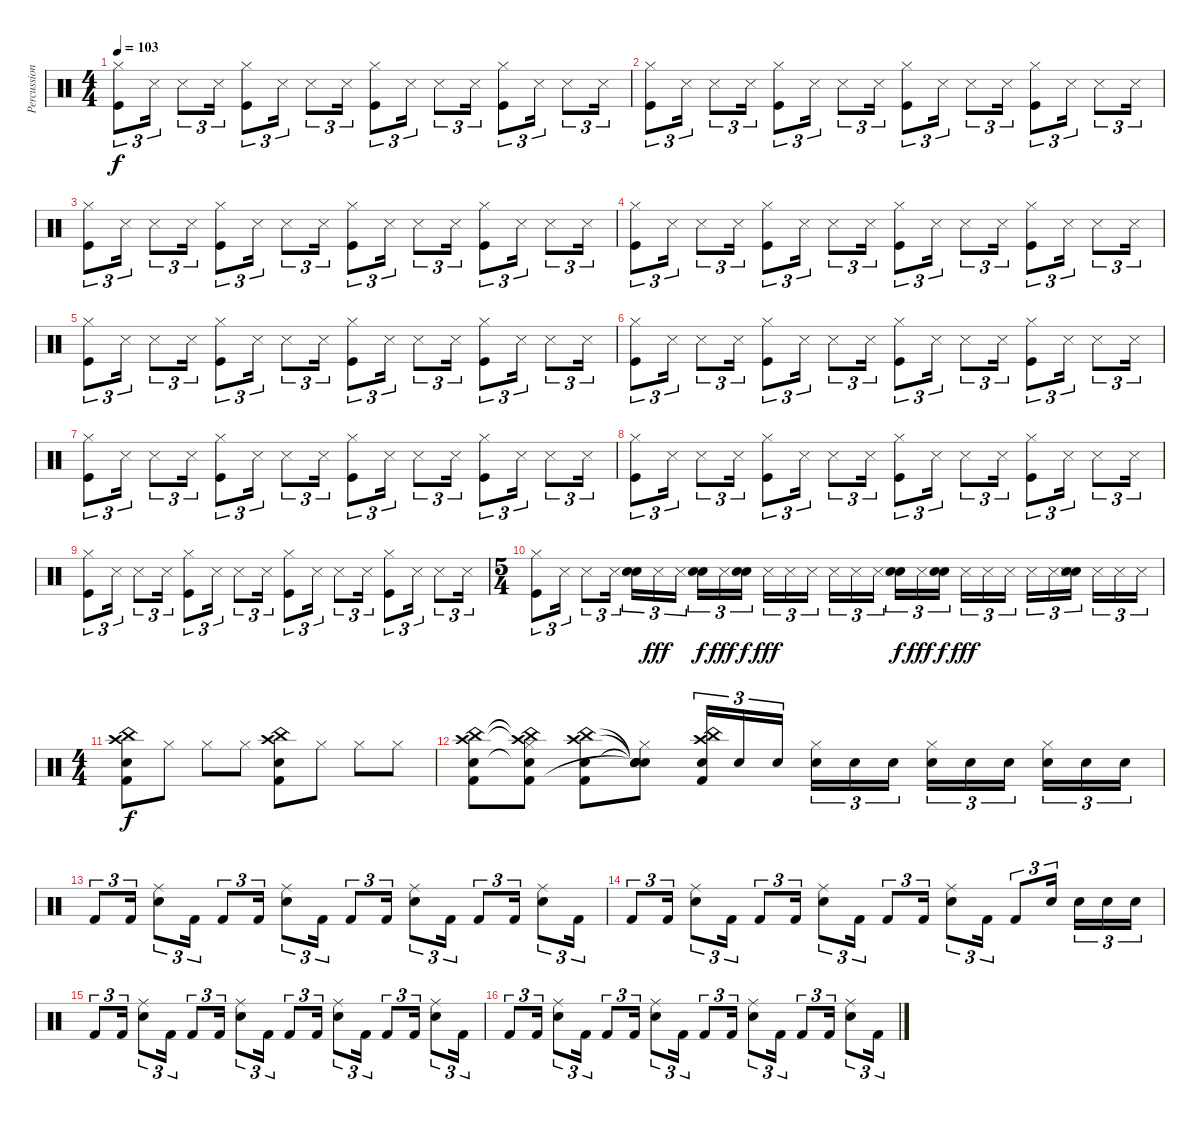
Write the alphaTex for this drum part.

\track ("Percussion" "Percussion") {instrument percussion}
\staff {score}
\articulation defaults
\ts (4 4)
\tempo 103
\clef neutral
\ks c
("Hi-Hat (closed)" "Kick (hit)").8{tu (3 2) dy f} "Metronome (hit)".16{tu (3 2)} "Metronome (hit)".8{tu (3 2)} "Metronome (hit)".16{tu (3 2)} ("Hi-Hat (closed)" "Kick (hit)").8{tu (3 2)} "Metronome (hit)".16{tu (3 2)} "Metronome (hit)".8{tu (3 2)} "Metronome (hit)".16{tu (3 2)} ("Hi-Hat (closed)" "Kick (hit)").8{tu (3 2)} "Metronome (hit)".16{tu (3 2)} "Metronome (hit)".8{tu (3 2)} "Metronome (hit)".16{tu (3 2)} ("Hi-Hat (closed)" "Kick (hit)").8{tu (3 2)} "Metronome (hit)".16{tu (3 2)} "Metronome (hit)".8{tu (3 2)} "Metronome (hit)".16{tu (3 2)} |
("Hi-Hat (closed)" "Kick (hit)").8{tu (3 2)} "Metronome (hit)".16{tu (3 2)} "Metronome (hit)".8{tu (3 2)} "Metronome (hit)".16{tu (3 2)} ("Hi-Hat (closed)" "Kick (hit)").8{tu (3 2)} "Metronome (hit)".16{tu (3 2)} "Metronome (hit)".8{tu (3 2)} "Metronome (hit)".16{tu (3 2)} ("Hi-Hat (closed)" "Kick (hit)").8{tu (3 2)} "Metronome (hit)".16{tu (3 2)} "Metronome (hit)".8{tu (3 2)} "Metronome (hit)".16{tu (3 2)} ("Hi-Hat (closed)" "Kick (hit)").8{tu (3 2)} "Metronome (hit)".16{tu (3 2)} "Metronome (hit)".8{tu (3 2)} "Metronome (hit)".16{tu (3 2)} |
("Hi-Hat (closed)" "Kick (hit)").8{tu (3 2)} "Metronome (hit)".16{tu (3 2)} "Metronome (hit)".8{tu (3 2)} "Metronome (hit)".16{tu (3 2)} ("Hi-Hat (closed)" "Kick (hit)").8{tu (3 2)} "Metronome (hit)".16{tu (3 2)} "Metronome (hit)".8{tu (3 2)} "Metronome (hit)".16{tu (3 2)} ("Hi-Hat (closed)" "Kick (hit)").8{tu (3 2)} "Metronome (hit)".16{tu (3 2)} "Metronome (hit)".8{tu (3 2)} "Metronome (hit)".16{tu (3 2)} ("Hi-Hat (closed)" "Kick (hit)").8{tu (3 2)} "Metronome (hit)".16{tu (3 2)} "Metronome (hit)".8{tu (3 2)} "Metronome (hit)".16{tu (3 2)} |
("Hi-Hat (closed)" "Kick (hit)").8{tu (3 2)} "Metronome (hit)".16{tu (3 2)} "Metronome (hit)".8{tu (3 2)} "Metronome (hit)".16{tu (3 2)} ("Hi-Hat (closed)" "Kick (hit)").8{tu (3 2)} "Metronome (hit)".16{tu (3 2)} "Metronome (hit)".8{tu (3 2)} "Metronome (hit)".16{tu (3 2)} ("Hi-Hat (closed)" "Kick (hit)").8{tu (3 2)} "Metronome (hit)".16{tu (3 2)} "Metronome (hit)".8{tu (3 2)} "Metronome (hit)".16{tu (3 2)} ("Hi-Hat (closed)" "Kick (hit)").8{tu (3 2)} "Metronome (hit)".16{tu (3 2)} "Metronome (hit)".8{tu (3 2)} "Metronome (hit)".16{tu (3 2)} |
("Hi-Hat (closed)" "Kick (hit)").8{tu (3 2)} "Metronome (hit)".16{tu (3 2)} "Metronome (hit)".8{tu (3 2)} "Metronome (hit)".16{tu (3 2)} ("Hi-Hat (closed)" "Kick (hit)").8{tu (3 2)} "Metronome (hit)".16{tu (3 2)} "Metronome (hit)".8{tu (3 2)} "Metronome (hit)".16{tu (3 2)} ("Hi-Hat (closed)" "Kick (hit)").8{tu (3 2)} "Metronome (hit)".16{tu (3 2)} "Metronome (hit)".8{tu (3 2)} "Metronome (hit)".16{tu (3 2)} ("Hi-Hat (closed)" "Kick (hit)").8{tu (3 2)} "Metronome (hit)".16{tu (3 2)} "Metronome (hit)".8{tu (3 2)} "Metronome (hit)".16{tu (3 2)} |
("Hi-Hat (closed)" "Kick (hit)").8{tu (3 2)} "Metronome (hit)".16{tu (3 2)} "Metronome (hit)".8{tu (3 2)} "Metronome (hit)".16{tu (3 2)} ("Hi-Hat (closed)" "Kick (hit)").8{tu (3 2)} "Metronome (hit)".16{tu (3 2)} "Metronome (hit)".8{tu (3 2)} "Metronome (hit)".16{tu (3 2)} ("Hi-Hat (closed)" "Kick (hit)").8{tu (3 2)} "Metronome (hit)".16{tu (3 2)} "Metronome (hit)".8{tu (3 2)} "Metronome (hit)".16{tu (3 2)} ("Hi-Hat (closed)" "Kick (hit)").8{tu (3 2)} "Metronome (hit)".16{tu (3 2)} "Metronome (hit)".8{tu (3 2)} "Metronome (hit)".16{tu (3 2)} |
("Hi-Hat (closed)" "Kick (hit)").8{tu (3 2)} "Metronome (hit)".16{tu (3 2)} "Metronome (hit)".8{tu (3 2)} "Metronome (hit)".16{tu (3 2)} ("Hi-Hat (closed)" "Kick (hit)").8{tu (3 2)} "Metronome (hit)".16{tu (3 2)} "Metronome (hit)".8{tu (3 2)} "Metronome (hit)".16{tu (3 2)} ("Hi-Hat (closed)" "Kick (hit)").8{tu (3 2)} "Metronome (hit)".16{tu (3 2)} "Metronome (hit)".8{tu (3 2)} "Metronome (hit)".16{tu (3 2)} ("Hi-Hat (closed)" "Kick (hit)").8{tu (3 2)} "Metronome (hit)".16{tu (3 2)} "Metronome (hit)".8{tu (3 2)} "Metronome (hit)".16{tu (3 2)} |
("Hi-Hat (closed)" "Kick (hit)").8{tu (3 2)} "Metronome (hit)".16{tu (3 2)} "Metronome (hit)".8{tu (3 2)} "Metronome (hit)".16{tu (3 2)} ("Hi-Hat (closed)" "Kick (hit)").8{tu (3 2)} "Metronome (hit)".16{tu (3 2)} "Metronome (hit)".8{tu (3 2)} "Metronome (hit)".16{tu (3 2)} ("Hi-Hat (closed)" "Kick (hit)").8{tu (3 2)} "Metronome (hit)".16{tu (3 2)} "Metronome (hit)".8{tu (3 2)} "Metronome (hit)".16{tu (3 2)} ("Hi-Hat (closed)" "Kick (hit)").8{tu (3 2)} "Metronome (hit)".16{tu (3 2)} "Metronome (hit)".8{tu (3 2)} "Metronome (hit)".16{tu (3 2)} |
("Hi-Hat (closed)" "Kick (hit)").8{tu (3 2)} "Metronome (hit)".16{tu (3 2)} "Metronome (hit)".8{tu (3 2)} "Metronome (hit)".16{tu (3 2)} ("Hi-Hat (closed)" "Kick (hit)").8{tu (3 2)} "Metronome (hit)".16{tu (3 2)} "Metronome (hit)".8{tu (3 2)} "Metronome (hit)".16{tu (3 2)} ("Hi-Hat (closed)" "Kick (hit)").8{tu (3 2)} "Metronome (hit)".16{tu (3 2)} "Metronome (hit)".8{tu (3 2)} "Metronome (hit)".16{tu (3 2)} ("Hi-Hat (closed)" "Kick (hit)").8{tu (3 2)} "Metronome (hit)".16{tu (3 2)} "Metronome (hit)".8{tu (3 2)} "Metronome (hit)".16{tu (3 2)} |
\ts (5 4)
("Hi-Hat (closed)" "Kick (hit)").8{tu (3 2)} "Metronome (hit)".16{tu (3 2)} "Metronome (hit)".8{tu (3 2)} "Metronome (hit)".16{tu (3 2)} ("Electric Snare (hit)" "Snare (hit) 2").16{tu (3 2) volume 10} "Snare (side stick) 3".16{tu (3 2) dy fff} "Snare (side stick) 3".16{tu (3 2)} ("Electric Snare (hit)" "Snare (hit) 2").16{tu (3 2) dy f} "Snare (side stick) 3".16{tu (3 2) dy fff} ("Electric Snare (hit)" "Snare (hit) 2").16{tu (3 2) dy f} "Snare (side stick) 3".16{tu (3 2) dy fff} "Snare (side stick) 3".16{tu (3 2)} "Snare (side stick) 3".16{tu (3 2)} "Snare (side stick) 3".16{tu (3 2)} "Snare (side stick) 3".16{tu (3 2)} "Snare (side stick) 3".16{tu (3 2)} ("Electric Snare (hit)" "Snare (hit) 2").16{tu (3 2) dy f} "Snare (side stick) 3".16{tu (3 2) dy fff} ("Electric Snare (hit)" "Snare (hit) 2").16{tu (3 2) dy f} "Snare (side stick) 3".16{tu (3 2) dy fff} "Snare (side stick) 3".16{tu (3 2)} "Snare (side stick) 3".16{tu (3 2)} "Snare (side stick) 3".16{tu (3 2)} "Snare (side stick) 3".16{tu (3 2)} ("Electric Snare (hit)" "Snare (hit) 2" "Snare (side stick) 3").16{tu (3 2)} "Snare (side stick) 3".16{tu (3 2)} "Snare (side stick) 3".16{tu (3 2)} "Snare (side stick) 3".16{tu (3 2)} |
\ts (4 4)
("China (hit)" "Crash high (hit)" "Electric Snare (hit)" "Kick (hit) 2").8{dy f volume 14} "Hi-Hat (closed)".8 "Hi-Hat (closed)".8 "Hi-Hat (closed)".8 ("China (hit)" "Crash high (hit)" "Electric Snare (hit)" "Kick (hit) 2").8 "Hi-Hat (closed)".8 "Hi-Hat (closed)".8 "Hi-Hat (closed)".8 |
("China (hit)" "Crash high (hit)" "Electric Snare (hit)" "Kick (hit) 2").8 ("China (hit)"{t} "Crash high (hit)"{t} "Electric Snare (hit)"{t} "Hi-Hat (closed)" "Kick (hit) 2").8 ("China (hit)" "Crash high (hit)" "Electric Snare (hit)" "Kick (hit) 2").8 ("Snare (hit)"{t} "Snare (hit)"{t} "Snare (hit)"{t} "Hi-Hat (closed)" "Snare (hit)"{t}).8 ("China (hit)" "Crash high (hit)" "Electric Snare (hit)" "Kick (hit) 2").16{tu (3 2)} "Electric Snare (hit)".16{tu (3 2)} "Electric Snare (hit)".16{tu (3 2)} ("Electric Snare (hit)" "Hi-Hat (closed)").16{tu (3 2)} "Electric Snare (hit)".16{tu (3 2)} "Electric Snare (hit)".16{tu (3 2)} ("Electric Snare (hit)" "Hi-Hat (closed)").16{tu (3 2)} "Electric Snare (hit)".16{tu (3 2)} "Electric Snare (hit)".16{tu (3 2)} ("Electric Snare (hit)" "Hi-Hat (closed)").16{tu (3 2)} "Electric Snare (hit)".16{tu (3 2)} "Electric Snare (hit)".16{tu (3 2)} |
"Kick (hit) 2".8{tu (3 2)} "Kick (hit) 2".16{tu (3 2)} ("Ride (middle)" "Snare (hit) 2").8{tu (3 2)} "Kick (hit) 2".16{tu (3 2)} "Kick (hit) 2".8{tu (3 2)} "Kick (hit) 2".16{tu (3 2)} ("Ride (middle)" "Snare (hit) 2").8{tu (3 2)} "Kick (hit) 2".16{tu (3 2)} "Kick (hit) 2".8{tu (3 2)} "Kick (hit) 2".16{tu (3 2)} ("Ride (middle)" "Snare (hit) 2").8{tu (3 2)} "Kick (hit) 2".16{tu (3 2)} "Kick (hit) 2".8{tu (3 2)} "Kick (hit) 2".16{tu (3 2)} ("Ride (middle)" "Snare (hit) 2").8{tu (3 2)} "Kick (hit) 2".16{tu (3 2)} |
"Kick (hit) 2".8{tu (3 2)} "Kick (hit) 2".16{tu (3 2)} ("Ride (middle)" "Snare (hit) 2").8{tu (3 2)} "Kick (hit) 2".16{tu (3 2)} "Kick (hit) 2".8{tu (3 2)} "Kick (hit) 2".16{tu (3 2)} ("Ride (middle)" "Snare (hit) 2").8{tu (3 2)} "Kick (hit) 2".16{tu (3 2)} "Kick (hit) 2".8{tu (3 2)} "Kick (hit) 2".16{tu (3 2)} ("Ride (middle)" "Snare (hit) 2").8{tu (3 2)} "Kick (hit) 2".16{tu (3 2)} "Kick (hit) 2".8{tu (3 2)} "Electric Snare (hit)".16{tu (3 2)} "Electric Snare (hit)".16{tu (3 2)} "Electric Snare (hit)".16{tu (3 2)} "Electric Snare (hit)".16{tu (3 2)} |
"Kick (hit) 2".8{tu (3 2)} "Kick (hit) 2".16{tu (3 2)} ("Ride (middle)" "Snare (hit) 2").8{tu (3 2)} "Kick (hit) 2".16{tu (3 2)} "Kick (hit) 2".8{tu (3 2)} "Kick (hit) 2".16{tu (3 2)} ("Ride (middle)" "Snare (hit) 2").8{tu (3 2)} "Kick (hit) 2".16{tu (3 2)} "Kick (hit) 2".8{tu (3 2)} "Kick (hit) 2".16{tu (3 2)} ("Ride (middle)" "Snare (hit) 2").8{tu (3 2)} "Kick (hit) 2".16{tu (3 2)} "Kick (hit) 2".8{tu (3 2)} "Kick (hit) 2".16{tu (3 2)} ("Ride (middle)" "Snare (hit) 2").8{tu (3 2)} "Kick (hit) 2".16{tu (3 2)} |
"Kick (hit) 2".8{tu (3 2)} "Kick (hit) 2".16{tu (3 2)} ("Ride (middle)" "Snare (hit) 2").8{tu (3 2)} "Kick (hit) 2".16{tu (3 2)} "Kick (hit) 2".8{tu (3 2)} "Kick (hit) 2".16{tu (3 2)} ("Ride (middle)" "Snare (hit) 2").8{tu (3 2)} "Kick (hit) 2".16{tu (3 2)} "Kick (hit) 2".8{tu (3 2)} "Kick (hit) 2".16{tu (3 2)} ("Ride (middle)" "Snare (hit) 2").8{tu (3 2)} "Kick (hit) 2".16{tu (3 2)} "Kick (hit) 2".8{tu (3 2)} "Kick (hit) 2".16{tu (3 2)} ("Ride (middle)" "Snare (hit) 2").8{tu (3 2)} "Kick (hit) 2".16{tu (3 2)}
